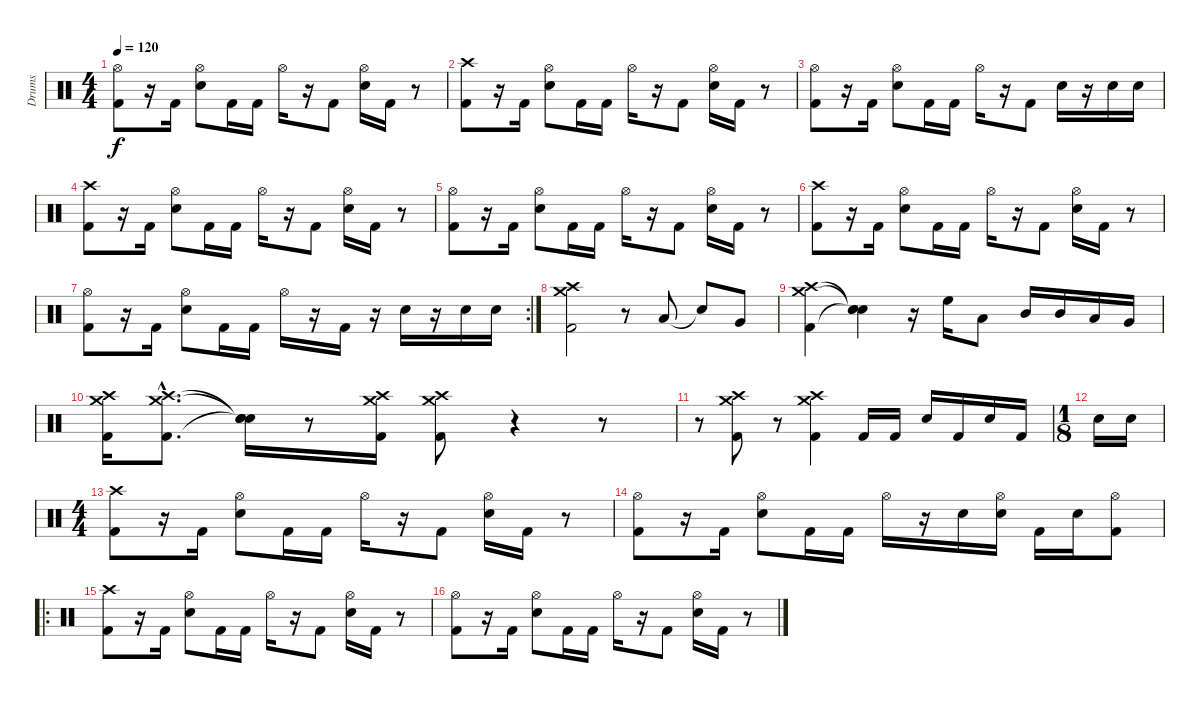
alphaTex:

\track ("Drums" "Drums") {instrument percussion}
\staff {score}
\articulation defaults
\ts (4 4)
\tempo 120
\clef neutral
\ks c
("Hi-Hat (open)" "Kick (hit) 2").8{dy f} r.16 "Kick (hit) 2".16 ("Hi-Hat (open)" "Snare (hit) 2").8 "Kick (hit) 2".16 "Kick (hit) 2".16 "Hi-Hat (open)".16 r.16 "Kick (hit) 2".8 ("Hi-Hat (open)" "Snare (hit) 2").16 "Kick (hit) 2".16 r.8 |
("Crash high (hit)" "Kick (hit) 2").8 r.16 "Kick (hit) 2".16 ("Hi-Hat (open)" "Snare (hit) 2").8 "Kick (hit) 2".16 "Kick (hit) 2".16 "Hi-Hat (open)".16 r.16 "Kick (hit) 2".8 ("Hi-Hat (open)" "Snare (hit) 2").16 "Kick (hit) 2".16 r.8 |
("Hi-Hat (open)" "Kick (hit) 2").8 r.16 "Kick (hit) 2".16 ("Hi-Hat (open)" "Snare (hit) 2").8 "Kick (hit) 2".16 "Kick (hit) 2".16 "Hi-Hat (open)".16 r.16 "Kick (hit) 2".8 "Snare (hit) 2".16 r.16 "Snare (hit) 2".16 "Snare (hit) 2".16 |
("Crash high (hit)" "Kick (hit) 2").8 r.16 "Kick (hit) 2".16 ("Hi-Hat (open)" "Snare (hit) 2").8 "Kick (hit) 2".16 "Kick (hit) 2".16 "Hi-Hat (open)".16 r.16 "Kick (hit) 2".8 ("Hi-Hat (open)" "Snare (hit) 2").16 "Kick (hit) 2".16 r.8 |
("Hi-Hat (open)" "Kick (hit) 2").8 r.16 "Kick (hit) 2".16 ("Hi-Hat (open)" "Snare (hit) 2").8 "Kick (hit) 2".16 "Kick (hit) 2".16 "Hi-Hat (open)".16 r.16 "Kick (hit) 2".8 ("Hi-Hat (open)" "Snare (hit) 2").16 "Kick (hit) 2".16 r.8 |
("Crash high (hit)" "Kick (hit) 2").8 r.16 "Kick (hit) 2".16 ("Hi-Hat (open)" "Snare (hit) 2").8 "Kick (hit) 2".16 "Kick (hit) 2".16 "Hi-Hat (open)".16 r.16 "Kick (hit) 2".8 ("Hi-Hat (open)" "Snare (hit) 2").16 "Kick (hit) 2".16 r.8 |
\rc 2
("Hi-Hat (open)" "Kick (hit) 2").8 r.16 "Kick (hit) 2".16 ("Hi-Hat (open)" "Snare (hit) 2").8 "Kick (hit) 2".16 "Kick (hit) 2".16 "Hi-Hat (open)".16 r.16 "Kick (hit) 2".16 r.16 "Snare (hit) 2".16 r.16 "Snare (hit) 2".16 "Snare (hit) 2".16 |
("Crash high (hit)" "Crash medium (hit)" "Kick (hit) 2").2 r.8 "Low Tom (hit)".8 "Snare (hit)"{t}.8 "Very Low Tom (hit)".8 |
("Crash high (hit)" "Crash medium (hit)" "Kick (hit) 2").4 ("Snare (hit)"{t} "Snare (hit)"{t} "Snare (hit)"{t}).4 r.16 "High Floor Tom (hit)".16 "Low Tom (hit)".8 "Mid Tom (hit)".16 "Mid Tom (hit)".16 "Low Tom (hit)".16 "Very Low Tom (hit)".16 |
("Crash high (hit)" "Crash medium (hit)" "Kick (hit) 2").16 ("Crash high (hit)"{hac} "Crash medium (hit)"{hac} "Kick (hit) 2"{hac}).8{d} ("Snare (hit)"{t} "Snare (hit)"{t} "Snare (hit)"{t}).16 r.8 ("Crash high (hit)" "Crash medium (hit)" "Kick (hit) 2").16 ("Crash high (hit)" "Crash medium (hit)" "Kick (hit) 2").8 r.4 r.8 |
r.8 ("Crash high (hit)" "Crash medium (hit)" "Kick (hit) 2").8 r.8 ("Crash high (hit)" "Crash medium (hit)" "Kick (hit) 2").4 "Kick (hit) 2".16 "Kick (hit) 2".16 "Snare (hit) 2".16 "Kick (hit) 2".16 "Snare (hit) 2".16 "Kick (hit) 2".16 |
\ts (1 8)
"Snare (hit) 2".16 "Snare (hit) 2".16 |
\ts (4 4)
("Crash high (hit)" "Kick (hit) 2").8 r.16 "Kick (hit) 2".16 ("Hi-Hat (open)" "Snare (hit) 2").8 "Kick (hit) 2".16 "Kick (hit) 2".16 "Hi-Hat (open)".16 r.16 "Kick (hit) 2".8 ("Hi-Hat (open)" "Snare (hit) 2").16 "Kick (hit) 2".16 r.8 |
("Hi-Hat (open)" "Kick (hit) 2").8 r.16 "Kick (hit) 2".16 ("Hi-Hat (open)" "Snare (hit) 2").8 "Kick (hit) 2".16 "Kick (hit) 2".16 "Hi-Hat (open)".16 r.16 "Snare (hit) 2".16 ("Hi-Hat (open)" "Snare (hit) 2").16 "Kick (hit) 2".16 "Snare (hit) 2".16 ("Hi-Hat (open)" "Kick (hit) 2").8 |
\ro
("Crash high (hit)" "Kick (hit) 2").8 r.16 "Kick (hit) 2".16 ("Hi-Hat (open)" "Snare (hit) 2").8 "Kick (hit) 2".16 "Kick (hit) 2".16 "Hi-Hat (open)".16 r.16 "Kick (hit) 2".8 ("Hi-Hat (open)" "Snare (hit) 2").16 "Kick (hit) 2".16 r.8 |
("Hi-Hat (open)" "Kick (hit) 2").8 r.16 "Kick (hit) 2".16 ("Hi-Hat (open)" "Snare (hit) 2").8 "Kick (hit) 2".16 "Kick (hit) 2".16 "Hi-Hat (open)".16 r.16 "Kick (hit) 2".8 ("Hi-Hat (open)" "Snare (hit) 2").16 "Kick (hit) 2".16 r.8
